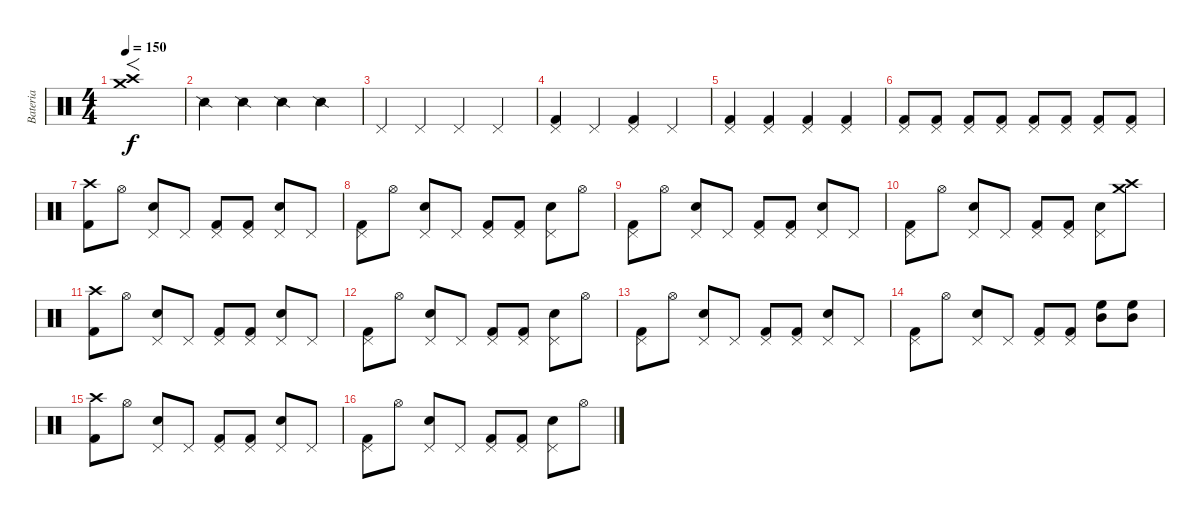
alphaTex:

\track ("Bateria" "Bateria") {instrument percussion}
\staff {score}
\articulation defaults
\ts (4 4)
\tempo 150
\clef neutral
\ks c
("Crash high (hit)" "Crash medium (hit)").1{f dy f} |
"Snare (side stick) 2".4 "Snare (side stick) 2".4 "Snare (side stick) 2".4 "Snare (side stick) 2".4 |
"Pedal Hi-Hat (hit)".4 "Pedal Hi-Hat (hit)".4 "Pedal Hi-Hat (hit)".4 "Pedal Hi-Hat (hit)".4 |
("Pedal Hi-Hat (hit)" "Kick (hit) 2").4 "Pedal Hi-Hat (hit)".4 ("Pedal Hi-Hat (hit)" "Kick (hit) 2").4 "Pedal Hi-Hat (hit)".4 |
("Pedal Hi-Hat (hit)" "Kick (hit) 2").4 ("Pedal Hi-Hat (hit)" "Kick (hit) 2").4 ("Pedal Hi-Hat (hit)" "Kick (hit) 2").4 ("Pedal Hi-Hat (hit)" "Kick (hit) 2").4 |
("Pedal Hi-Hat (hit)" "Kick (hit) 2").8 ("Pedal Hi-Hat (hit)" "Kick (hit) 2").8 ("Pedal Hi-Hat (hit)" "Kick (hit) 2").8 ("Pedal Hi-Hat (hit)" "Kick (hit) 2").8 ("Pedal Hi-Hat (hit)" "Kick (hit) 2").8 ("Pedal Hi-Hat (hit)" "Kick (hit) 2").8 ("Pedal Hi-Hat (hit)" "Kick (hit) 2").8 ("Pedal Hi-Hat (hit)" "Kick (hit) 2").8 |
("Crash high (hit)" "Kick (hit) 2").8 "Hi-Hat (open)".8 ("Pedal Hi-Hat (hit)" "Snare (hit) 2").8 "Pedal Hi-Hat (hit)".8 ("Pedal Hi-Hat (hit)" "Kick (hit) 2").8 ("Pedal Hi-Hat (hit)" "Kick (hit) 2").8 ("Pedal Hi-Hat (hit)" "Snare (hit) 2").8 "Pedal Hi-Hat (hit)".8 |
("Pedal Hi-Hat (hit)" "Kick (hit) 2").8 "Hi-Hat (open)".8 ("Pedal Hi-Hat (hit)" "Snare (hit) 2").8 "Pedal Hi-Hat (hit)".8 ("Pedal Hi-Hat (hit)" "Kick (hit) 2").8 ("Pedal Hi-Hat (hit)" "Kick (hit) 2").8 ("Pedal Hi-Hat (hit)" "Snare (hit) 2").8 "Hi-Hat (open)".8 |
("Pedal Hi-Hat (hit)" "Kick (hit) 2").8 "Hi-Hat (open)".8 ("Pedal Hi-Hat (hit)" "Snare (hit) 2").8 "Pedal Hi-Hat (hit)".8 ("Pedal Hi-Hat (hit)" "Kick (hit) 2").8 ("Pedal Hi-Hat (hit)" "Kick (hit) 2").8 ("Pedal Hi-Hat (hit)" "Snare (hit) 2").8 "Pedal Hi-Hat (hit)".8 |
("Pedal Hi-Hat (hit)" "Kick (hit) 2").8 "Hi-Hat (open)".8 ("Pedal Hi-Hat (hit)" "Snare (hit) 2").8 "Pedal Hi-Hat (hit)".8 ("Pedal Hi-Hat (hit)" "Kick (hit) 2").8 ("Pedal Hi-Hat (hit)" "Kick (hit) 2").8 ("Pedal Hi-Hat (hit)" "Snare (hit) 2").8 ("Crash medium (hit)" "Crash high (hit)").8 |
("Crash high (hit)" "Kick (hit) 2").8 "Hi-Hat (open)".8 ("Pedal Hi-Hat (hit)" "Snare (hit) 2").8 "Pedal Hi-Hat (hit)".8 ("Pedal Hi-Hat (hit)" "Kick (hit) 2").8 ("Pedal Hi-Hat (hit)" "Kick (hit) 2").8 ("Pedal Hi-Hat (hit)" "Snare (hit) 2").8 "Pedal Hi-Hat (hit)".8 |
("Pedal Hi-Hat (hit)" "Kick (hit) 2").8 "Hi-Hat (open)".8 ("Pedal Hi-Hat (hit)" "Snare (hit) 2").8 "Pedal Hi-Hat (hit)".8 ("Pedal Hi-Hat (hit)" "Kick (hit) 2").8 ("Pedal Hi-Hat (hit)" "Kick (hit) 2").8 ("Pedal Hi-Hat (hit)" "Snare (hit) 2").8 "Hi-Hat (open)".8 |
("Pedal Hi-Hat (hit)" "Kick (hit) 2").8 "Hi-Hat (open)".8 ("Pedal Hi-Hat (hit)" "Snare (hit) 2").8 "Pedal Hi-Hat (hit)".8 ("Pedal Hi-Hat (hit)" "Kick (hit) 2").8 ("Pedal Hi-Hat (hit)" "Kick (hit) 2").8 ("Pedal Hi-Hat (hit)" "Snare (hit) 2").8 "Pedal Hi-Hat (hit)".8 |
("Pedal Hi-Hat (hit)" "Kick (hit) 2").8 "Hi-Hat (open)".8 ("Pedal Hi-Hat (hit)" "Snare (hit) 2").8 "Pedal Hi-Hat (hit)".8 ("Pedal Hi-Hat (hit)" "Kick (hit) 2").8 ("Pedal Hi-Hat (hit)" "Kick (hit) 2").8 ("Mid Tom (hit)" "High Floor Tom (hit)").8 ("Mid Tom (hit)" "High Floor Tom (hit)").8 |
("Crash high (hit)" "Kick (hit) 2").8 "Hi-Hat (open)".8 ("Pedal Hi-Hat (hit)" "Snare (hit) 2").8 "Pedal Hi-Hat (hit)".8 ("Pedal Hi-Hat (hit)" "Kick (hit) 2").8 ("Pedal Hi-Hat (hit)" "Kick (hit) 2").8 ("Pedal Hi-Hat (hit)" "Snare (hit) 2").8 "Pedal Hi-Hat (hit)".8 |
("Pedal Hi-Hat (hit)" "Kick (hit) 2").8 "Hi-Hat (open)".8 ("Pedal Hi-Hat (hit)" "Snare (hit) 2").8 "Pedal Hi-Hat (hit)".8 ("Pedal Hi-Hat (hit)" "Kick (hit) 2").8 ("Pedal Hi-Hat (hit)" "Kick (hit) 2").8 ("Pedal Hi-Hat (hit)" "Snare (hit) 2").8 "Hi-Hat (open)".8
